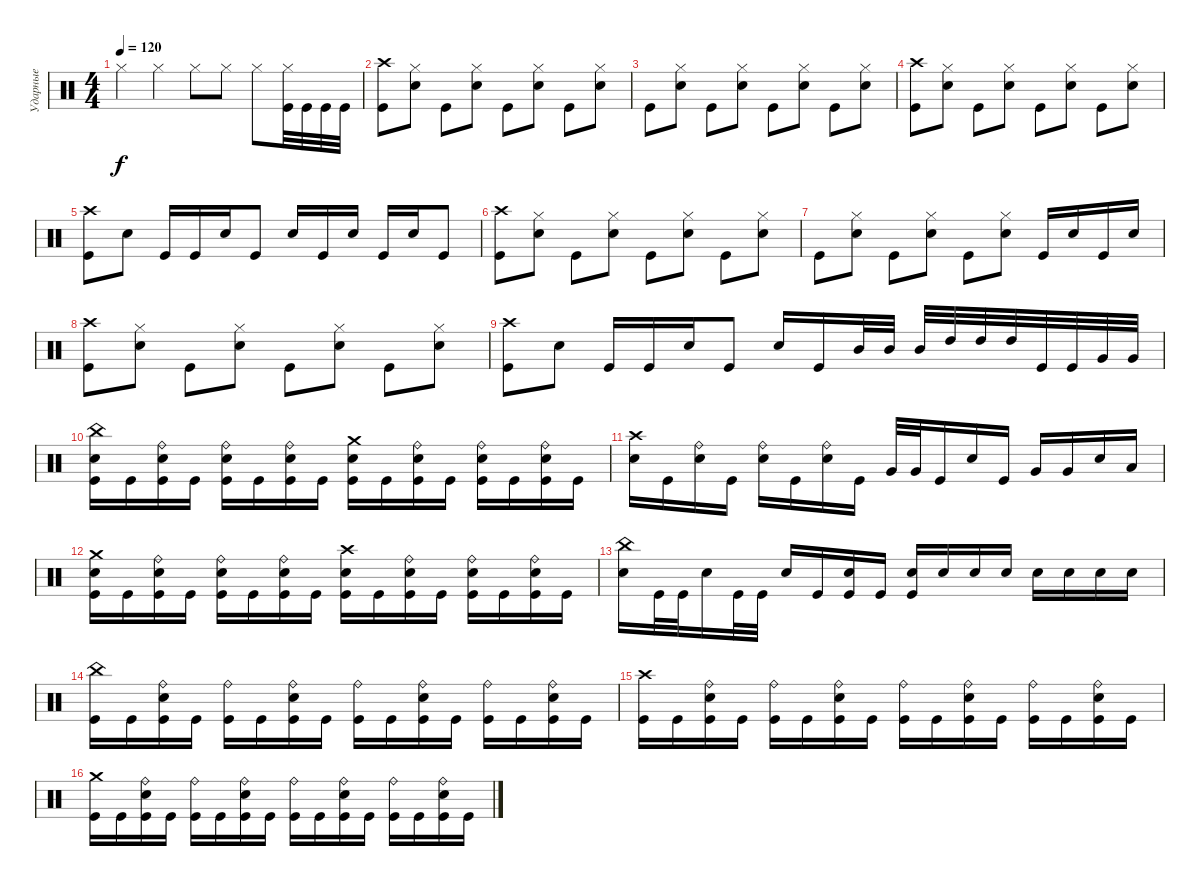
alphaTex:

\track ("Ударные" "Ударные") {instrument percussion}
\staff {score}
\articulation defaults
\ts (4 4)
\tempo 120
\clef neutral
\ks c "Hi-Hat (closed)".4{dy f} "Hi-Hat (closed)".4 "Hi-Hat (closed)".8 "Hi-Hat (closed)".8 "Hi-Hat (closed)".8
("Hi-Hat (closed)" "Kick (hit)").32 "Kick (hit)".32 "Kick (hit)".32 "Kick (hit)".32 |
("Crash high (hit)" "Kick (hit)").8 ("Hi-Hat (closed)" "Electric Snare (hit)").8 "Kick (hit)".8 ("Hi-Hat (closed)" "Electric Snare (hit)").8 "Kick (hit)".8 ("Hi-Hat (closed)" "Electric Snare (hit)").8 "Kick (hit)".8 ("Hi-Hat (closed)" "Electric Snare (hit)").8 |
"Kick (hit)".8 ("Hi-Hat (closed)" "Electric Snare (hit)").8 "Kick (hit)".8 ("Hi-Hat (closed)" "Electric Snare (hit)").8 "Kick (hit)".8 ("Hi-Hat (closed)" "Electric Snare (hit)").8 "Kick (hit)".8 ("Hi-Hat (closed)" "Electric Snare (hit)").8 |
("Crash high (hit)" "Kick (hit)").8 ("Hi-Hat (closed)" "Electric Snare (hit)").8 "Kick (hit)".8 ("Hi-Hat (closed)" "Electric Snare (hit)").8 "Kick (hit)".8 ("Hi-Hat (closed)" "Electric Snare (hit)").8 "Kick (hit)".8 ("Hi-Hat (closed)" "Electric Snare (hit)").8 |
("Crash high (hit)" "Kick (hit)").8 "Electric Snare (hit)".8 "Kick (hit)".16 "Kick (hit)".16 "Electric Snare (hit)".16 "Kick (hit)".8 "Electric Snare (hit)".16 "Kick (hit)".16 "Electric Snare (hit)".16 "Kick (hit)".16 "Electric Snare (hit)".16 "Kick (hit)".8 |
("Crash high (hit)" "Kick (hit)").8 ("Hi-Hat (closed)" "Electric Snare (hit)").8 "Kick (hit)".8 ("Hi-Hat (closed)" "Electric Snare (hit)").8 "Kick (hit)".8 ("Hi-Hat (closed)" "Electric Snare (hit)").8 "Kick (hit)".8 ("Hi-Hat (closed)" "Electric Snare (hit)").8 |
"Kick (hit)".8 ("Hi-Hat (closed)" "Electric Snare (hit)").8 "Kick (hit)".8 ("Hi-Hat (closed)" "Electric Snare (hit)").8 "Kick (hit)".8 ("Hi-Hat (closed)" "Electric Snare (hit)").8 "Kick (hit)".16 "Electric Snare (hit)".16 "Kick (hit)".16 "Electric Snare (hit)".16 |
("Crash high (hit)" "Kick (hit)").8 ("Hi-Hat (closed)" "Electric Snare (hit)").8 "Kick (hit)".8 ("Hi-Hat (closed)" "Electric Snare (hit)").8 "Kick (hit)".8 ("Hi-Hat (closed)" "Electric Snare (hit)").8 "Kick (hit)".8 ("Hi-Hat (closed)" "Electric Snare (hit)").8 |
("Crash high (hit)" "Kick (hit)").8 "Electric Snare (hit)".8 "Kick (hit)".16 "Kick (hit)".16 "Electric Snare (hit)".16 "Kick (hit)".8 "Electric Snare (hit)".16 "Kick (hit)".16 "Mid Tom (hit)".32 "Mid Tom (hit)".32 "Mid Tom (hit)".32 "High Tom (hit)".32 "High Tom (hit)".32 "High Tom (hit)".32 "Kick (hit)".32 "Kick (hit)".32 "Very Low Tom (hit)".32 "Very Low Tom (hit)".32 |
("China (hit)" "Electric Snare (hit)" "Kick (hit)").16 "Kick (hit)".16 ("Ride (bell)" "Electric Snare (hit)" "Kick (hit)").16 "Kick (hit)".16 ("Ride (bell)" "Electric Snare (hit)" "Kick (hit)").16 "Kick (hit)".16 ("Ride (bell)" "Electric Snare (hit)" "Kick (hit)").16 "Kick (hit)".16 ("Crash medium (hit)" "Electric Snare (hit)" "Kick (hit)").16 "Kick (hit)".16 ("Ride (bell)" "Electric Snare (hit)" "Kick (hit)").16 "Kick (hit)".16 ("Ride (bell)" "Electric Snare (hit)" "Kick (hit)").16 "Kick (hit)".16 ("Ride (bell)" "Electric Snare (hit)" "Kick (hit)").16 "Kick (hit)".16 |
("Crash high (hit)" "Electric Snare (hit)").16 "Kick (hit)".16 ("Ride (bell)" "Electric Snare (hit)").16 "Kick (hit)".16 ("Ride (bell)" "Electric Snare (hit)").16 "Kick (hit)".16 ("Ride (bell)" "Electric Snare (hit)").16 "Kick (hit)".16 "Very Low Tom (hit)".32 "Very Low Tom (hit)".32 "Kick (hit)".16 "Electric Snare (hit)".16 "Kick (hit)".16 "Very Low Tom (hit)".16 "Very Low Tom (hit)".16 "Electric Snare (hit)".16 "Low Tom (hit)".16 |
("Crash medium (hit)" "Electric Snare (hit)" "Kick (hit)").16 "Kick (hit)".16 ("Ride (bell)" "Electric Snare (hit)" "Kick (hit)").16 "Kick (hit)".16 ("Ride (bell)" "Electric Snare (hit)" "Kick (hit)").16 "Kick (hit)".16 ("Ride (bell)" "Electric Snare (hit)" "Kick (hit)").16 "Kick (hit)".16 ("Crash high (hit)" "Electric Snare (hit)" "Kick (hit)").16 "Kick (hit)".16 ("Ride (bell)" "Electric Snare (hit)" "Kick (hit)").16 "Kick (hit)".16 ("Ride (bell)" "Electric Snare (hit)" "Kick (hit)").16 "Kick (hit)".16 ("Ride (bell)" "Electric Snare (hit)" "Kick (hit)").16 "Kick (hit)".16 |
("China (hit)" "Electric Snare (hit)").16 "Kick (hit)".32 "Kick (hit)".32 "Electric Snare (hit)".16 "Kick (hit)".32 "Kick (hit)".32 "Electric Snare (hit)".16 "Kick (hit)".16 ("Electric Snare (hit)" "Kick (hit)").16 "Kick (hit)".16 ("Electric Snare (hit)" "Kick (hit)").16 "Electric Snare (hit)".16 "Electric Snare (hit)".16 "Electric Snare (hit)".16 "Electric Snare (hit)".16 "Electric Snare (hit)".16 "Electric Snare (hit)".16 "Electric Snare (hit)".16 |
("China (hit)" "Kick (hit)").16 "Kick (hit)".16 ("Ride (bell)" "Electric Snare (hit)" "Kick (hit)").16 "Kick (hit)".16 ("Ride (bell)" "Kick (hit)").16 "Kick (hit)".16 ("Ride (bell)" "Electric Snare (hit)" "Kick (hit)").16 "Kick (hit)".16 ("Ride (bell)" "Kick (hit)").16 "Kick (hit)".16 ("Ride (bell)" "Electric Snare (hit)" "Kick (hit)").16 "Kick (hit)".16 ("Ride (bell)" "Kick (hit)").16 "Kick (hit)".16 ("Ride (bell)" "Electric Snare (hit)" "Kick (hit)").16 "Kick (hit)".16 |
("Crash high (hit)" "Kick (hit)").16 "Kick (hit)".16 ("Ride (bell)" "Electric Snare (hit)" "Kick (hit)").16 "Kick (hit)".16 ("Ride (bell)" "Kick (hit)").16 "Kick (hit)".16 ("Ride (bell)" "Electric Snare (hit)" "Kick (hit)").16 "Kick (hit)".16 ("Ride (bell)" "Kick (hit)").16 "Kick (hit)".16 ("Ride (bell)" "Electric Snare (hit)" "Kick (hit)").16 "Kick (hit)".16 ("Ride (bell)" "Kick (hit)").16 "Kick (hit)".16 ("Ride (bell)" "Electric Snare (hit)" "Kick (hit)").16 "Kick (hit)".16 |
("Crash medium (hit)" "Kick (hit)").16 "Kick (hit)".16 ("Ride (bell)" "Electric Snare (hit)" "Kick (hit)").16 "Kick (hit)".16 ("Ride (bell)" "Kick (hit)").16 "Kick (hit)".16 ("Ride (bell)" "Electric Snare (hit)" "Kick (hit)").16 "Kick (hit)".16 ("Ride (bell)" "Kick (hit)").16 "Kick (hit)".16 ("Ride (bell)" "Electric Snare (hit)" "Kick (hit)").16 "Kick (hit)".16 ("Ride (bell)" "Kick (hit)").16 "Kick (hit)".16 ("Ride (bell)" "Electric Snare (hit)" "Kick (hit)").16 "Kick (hit)".16
